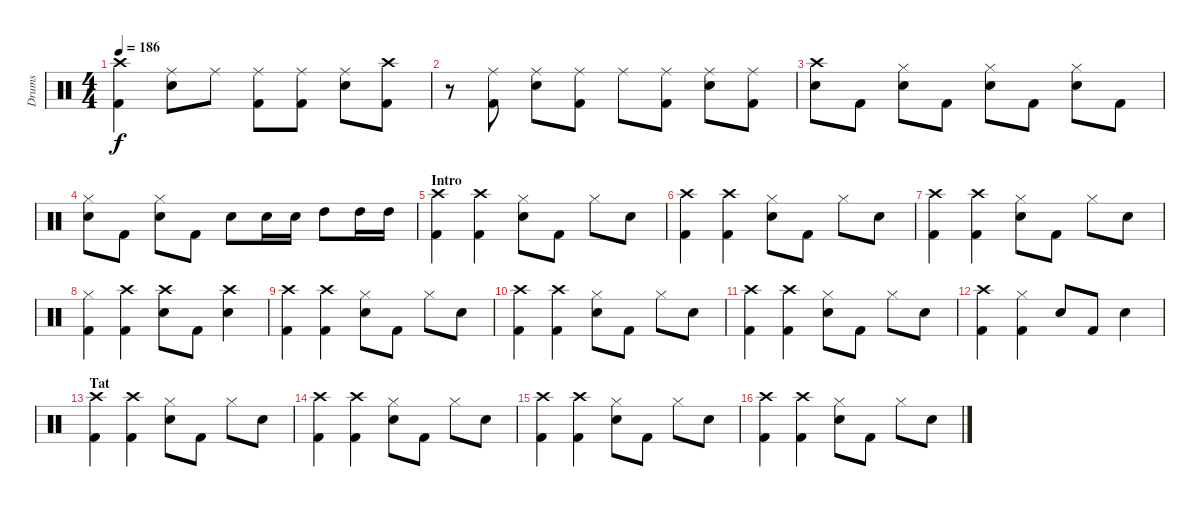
\track ("Drums" "Drums") {instrument percussion}
\staff {score}
\articulation defaults
\ts (4 4)
\tempo 186
\clef neutral
\ks c
("Crash high (hit)" "Kick (hit) 2").4{dy f} ("Ride (middle)" "Snare (hit) 2").8 "Ride (middle)".8 ("Ride (middle)" "Kick (hit) 2").8 ("Ride (middle)" "Kick (hit) 2").8 ("Ride (middle)" "Snare (hit) 2").8 ("Crash high (hit)" "Kick (hit) 2").8 |
r.8 ("Ride (middle)" "Kick (hit) 2").8 ("Ride (middle)" "Snare (hit) 2").8 ("Ride (middle)" "Kick (hit) 2").8 "Ride (middle)".8 ("Ride (middle)" "Kick (hit) 2").8 ("Ride (middle)" "Snare (hit) 2").8 ("Ride (middle)" "Kick (hit) 2").8 |
("Crash high (hit)" "Snare (hit) 2").8 "Kick (hit) 2".8 ("Hi-Hat (closed)" "Snare (hit) 2").8 "Kick (hit) 2".8 ("Hi-Hat (closed)" "Snare (hit) 2").8 "Kick (hit) 2".8 ("Hi-Hat (closed)" "Snare (hit) 2").8 "Kick (hit) 2".8 |
("Hi-Hat (closed)" "Snare (hit) 2").8 "Kick (hit) 2".8 ("Hi-Hat (closed)" "Snare (hit) 2").8 "Kick (hit) 2".8 "Snare (hit) 2".8 "Snare (hit) 2".16 "Snare (hit) 2".16 "High Tom (hit)".8 "High Tom (hit)".16 "High Tom (hit)".16 |
\section ("" "Intro")
("Crash high (hit)" "Kick (hit) 2").4 ("Crash high (hit)" "Kick (hit) 2").4 ("Hi-Hat (closed)" "Snare (hit) 2").8 "Kick (hit) 2".8 "Hi-Hat (closed)".8 "Snare (hit) 2".8 |
("Crash high (hit)" "Kick (hit) 2").4 ("Crash high (hit)" "Kick (hit) 2").4 ("Hi-Hat (closed)" "Snare (hit) 2").8 "Kick (hit) 2".8 "Hi-Hat (closed)".8 "Snare (hit) 2".8 |
("Crash high (hit)" "Kick (hit) 2").4 ("Crash high (hit)" "Kick (hit) 2").4 ("Hi-Hat (closed)" "Snare (hit) 2").8 "Kick (hit) 2".8 "Hi-Hat (closed)".8 "Snare (hit) 2".8 |
("Hi-Hat (closed)" "Kick (hit) 2").4 ("Crash high (hit)" "Kick (hit) 2").4 ("Crash high (hit)" "Snare (hit) 2").8 "Kick (hit) 2".8 ("Crash high (hit)" "Snare (hit) 2").4 |
("Crash high (hit)" "Kick (hit) 2").4 ("Crash high (hit)" "Kick (hit) 2").4 ("Hi-Hat (closed)" "Snare (hit) 2").8 "Kick (hit) 2".8 "Hi-Hat (closed)".8 "Snare (hit) 2".8 |
("Crash high (hit)" "Kick (hit) 2").4 ("Crash high (hit)" "Kick (hit) 2").4 ("Hi-Hat (closed)" "Snare (hit) 2").8 "Kick (hit) 2".8 "Hi-Hat (closed)".8 "Snare (hit) 2".8 |
("Crash high (hit)" "Kick (hit) 2").4 ("Crash high (hit)" "Kick (hit) 2").4 ("Hi-Hat (closed)" "Snare (hit) 2").8 "Kick (hit) 2".8 "Hi-Hat (closed)".8 "Snare (hit) 2".8 |
("Crash high (hit)" "Kick (hit) 2").4 ("Hi-Hat (closed)" "Kick (hit) 2").4 "Snare (hit) 2".8 "Kick (hit) 2".8 "Snare (hit) 2".4 |
\section ("" "Tat")
("Crash high (hit)" "Kick (hit) 2").4 ("Crash high (hit)" "Kick (hit) 2").4 ("Hi-Hat (closed)" "Snare (hit) 2").8 "Kick (hit) 2".8 "Hi-Hat (closed)".8 "Snare (hit) 2".8 |
("Crash high (hit)" "Kick (hit) 2").4 ("Crash high (hit)" "Kick (hit) 2").4 ("Hi-Hat (closed)" "Snare (hit) 2").8 "Kick (hit) 2".8 "Hi-Hat (closed)".8 "Snare (hit) 2".8 |
("Crash high (hit)" "Kick (hit) 2").4 ("Crash high (hit)" "Kick (hit) 2").4 ("Hi-Hat (closed)" "Snare (hit) 2").8 "Kick (hit) 2".8 "Hi-Hat (closed)".8 "Snare (hit) 2".8 |
("Crash high (hit)" "Kick (hit) 2").4 ("Crash high (hit)" "Kick (hit) 2").4 ("Hi-Hat (closed)" "Snare (hit) 2").8 "Kick (hit) 2".8 "Hi-Hat (closed)".8 "Snare (hit) 2".8
